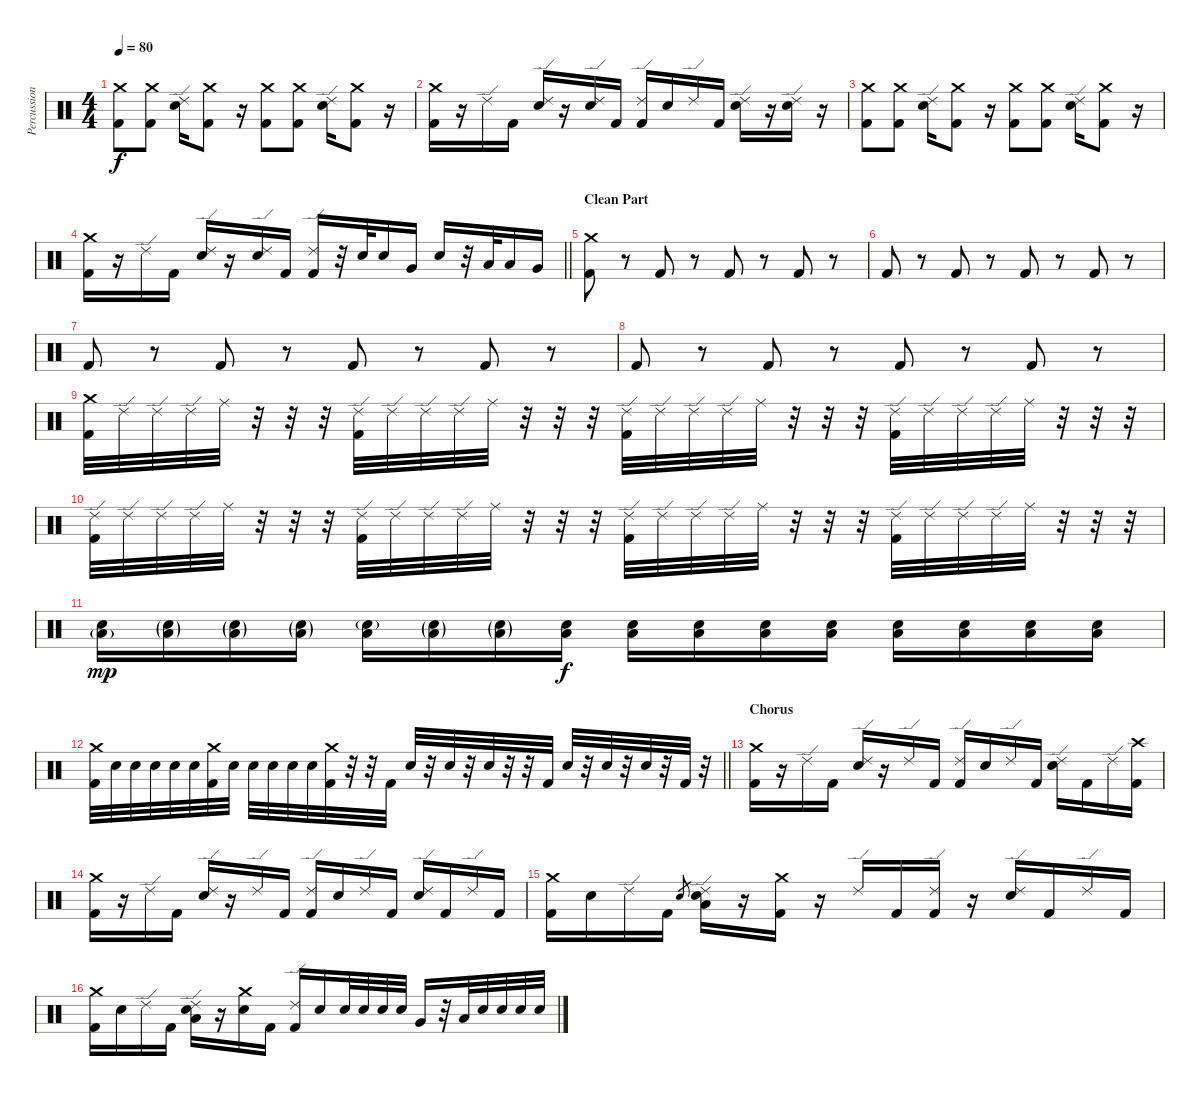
\track ("Percussion (Phillips)" "Percussion") {instrument percussion}
\staff {score}
\articulation defaults
\ts (4 4)
\tempo 80
\clef neutral
\ks c
("Crash medium (hit)" "Kick (hit) 2").8{dy f} ("Crash medium (hit)" "Kick (hit) 2").8 ("Ride (edge) 2" "Electric Snare (hit)").16 ("Crash medium (hit)" "Kick (hit) 2").8 r.16 ("Crash medium (hit)" "Kick (hit) 2").8 ("Crash medium (hit)" "Kick (hit) 2").8 ("Ride (edge) 2" "Electric Snare (hit)").16 ("Crash medium (hit)" "Kick (hit) 2").8 r.16 |
("Crash medium (hit)" "Kick (hit) 2").16 r.16 "Ride (edge) 2".16 "Kick (hit) 2".16 ("Ride (edge) 2" "Electric Snare (hit)").16 r.16 ("Ride (edge) 2" "Electric Snare (hit)").16 "Kick (hit) 2".16 ("Ride (edge) 2" "Kick (hit) 2").16 "Electric Snare (hit)".16 "Ride (edge) 2".16 "Kick (hit) 2".16 ("Ride (edge) 2" "Electric Snare (hit)").16 r.16 ("Ride (edge) 2" "Electric Snare (hit)").16 r.16 |
("Crash medium (hit)" "Kick (hit) 2").8 ("Crash medium (hit)" "Kick (hit) 2").8 ("Ride (edge) 2" "Electric Snare (hit)").16 ("Crash medium (hit)" "Kick (hit) 2").8 r.16 ("Crash medium (hit)" "Kick (hit) 2").8 ("Crash medium (hit)" "Kick (hit) 2").8 ("Ride (edge) 2" "Electric Snare (hit)").16 ("Crash medium (hit)" "Kick (hit) 2").8 r.16 |
\barLineRight lightlight
("Crash medium (hit)" "Kick (hit) 2").16 r.16 "Ride (edge) 2".16 "Kick (hit) 2".16 ("Ride (edge) 2" "Electric Snare (hit)").16 r.16 ("Ride (edge) 2" "Electric Snare (hit)").16 "Kick (hit) 2".16 ("Ride (edge) 2" "Kick (hit) 2").16 r.32 "Electric Snare (hit)".32 "Electric Snare (hit)".16 "Very Low Tom (hit)".16 "Electric Snare (hit)".16 r.32 "Low Tom (hit)".32 "Low Tom (hit)".16 "Very Low Tom (hit)".16 |
\section ("" "Clean Part")
("Crash medium (hit)" "Kick (hit) 2").8 r.8 "Kick (hit) 2".8 r.8 "Kick (hit) 2".8 r.8 "Kick (hit) 2".8 r.8 |
"Kick (hit) 2".8 r.8 "Kick (hit) 2".8 r.8 "Kick (hit) 2".8 r.8 "Kick (hit) 2".8 r.8 |
"Kick (hit) 2".8 r.8 "Kick (hit) 2".8 r.8 "Kick (hit) 2".8 r.8 "Kick (hit) 2".8 r.8 |
"Kick (hit) 2".8 r.8 "Kick (hit) 2".8 r.8 "Kick (hit) 2".8 r.8 "Kick (hit) 2".8 r.8 |
("Crash medium (hit)" "Kick (hit) 2").32 "Ride (edge) 2".32 "Ride (edge) 2".32 "Ride (edge) 2".32 "Ride (middle)".32 r.32 r.32 r.32 ("Ride (edge) 2" "Kick (hit) 2").32 "Ride (edge) 2".32 "Ride (edge) 2".32 "Ride (edge) 2".32 "Ride (middle)".32 r.32 r.32 r.32 ("Ride (edge) 2" "Kick (hit) 2").32 "Ride (edge) 2".32 "Ride (edge) 2".32 "Ride (edge) 2".32 "Ride (middle)".32 r.32 r.32 r.32 ("Ride (edge) 2" "Kick (hit) 2").32 "Ride (edge) 2".32 "Ride (edge) 2".32 "Ride (edge) 2".32 "Ride (middle)".32 r.32 r.32 r.32 |
("Ride (edge) 2" "Kick (hit) 2").32 "Ride (edge) 2".32 "Ride (edge) 2".32 "Ride (edge) 2".32 "Ride (middle)".32 r.32 r.32 r.32 ("Ride (edge) 2" "Kick (hit) 2").32 "Ride (edge) 2".32 "Ride (edge) 2".32 "Ride (edge) 2".32 "Ride (middle)".32 r.32 r.32 r.32 ("Ride (edge) 2" "Kick (hit) 2").32 "Ride (edge) 2".32 "Ride (edge) 2".32 "Ride (edge) 2".32 "Ride (middle)".32 r.32 r.32 r.32 ("Ride (edge) 2" "Kick (hit) 2").32 "Ride (edge) 2".32 "Ride (edge) 2".32 "Ride (edge) 2".32 "Ride (middle)".32 r.32 r.32 r.32 |
("Low Floor Tom (hit)"{g} "Electric Snare (hit)").16{dy mp} ("Low Floor Tom (hit)"{g} "Electric Snare (hit)"{g}).16 ("Low Floor Tom (hit)"{g} "Electric Snare (hit)"{g}).16 ("Low Floor Tom (hit)"{g} "Electric Snare (hit)"{g}).16 ("Low Floor Tom (hit)" "Electric Snare (hit)"{g}).16 ("Low Floor Tom (hit)"{g} "Electric Snare (hit)"{g}).16 ("Low Floor Tom (hit)"{g} "Electric Snare (hit)"{g}).16 ("Low Floor Tom (hit)" "Electric Snare (hit)").16{dy f} ("Low Floor Tom (hit)" "Electric Snare (hit)").16 ("Low Floor Tom (hit)" "Electric Snare (hit)").16 ("Low Floor Tom (hit)" "Electric Snare (hit)").16 ("Low Floor Tom (hit)" "Electric Snare (hit)").16 ("Low Floor Tom (hit)" "Electric Snare (hit)").16 ("Low Floor Tom (hit)" "Electric Snare (hit)").16 ("Low Floor Tom (hit)" "Electric Snare (hit)").16 ("Low Floor Tom (hit)" "Electric Snare (hit)").16 |
\barLineRight lightlight
("Crash medium (hit)" "Kick (hit) 2").32 "Electric Snare (hit)".32 "Electric Snare (hit)".32 "Electric Snare (hit)".32 "Electric Snare (hit)".32 "Electric Snare (hit)".32 ("Crash medium (hit)" "Kick (hit) 2").32 "Electric Snare (hit)".32 "Electric Snare (hit)".32 "Electric Snare (hit)".32 "Electric Snare (hit)".32 "Electric Snare (hit)".32 ("Crash medium (hit)" "Kick (hit) 2").32 r.32 r.32 "Kick (hit) 2".32 "Electric Snare (hit)".32 r.32 "Electric Snare (hit)".32 r.32 "Electric Snare (hit)".32 r.32 r.32 "Kick (hit) 2".32 "Electric Snare (hit)".32 r.32 "Electric Snare (hit)".32 r.32 "Electric Snare (hit)".32 r.32 "Kick (hit) 2".32 r.32 |
\section ("" "Chorus")
("Crash medium (hit)" "Kick (hit) 2").16 r.16 "Ride (edge) 2".16 "Kick (hit) 2".16 ("Ride (edge) 2" "Electric Snare (hit)").16 r.16 "Ride (edge) 2".16 "Kick (hit) 2".16 ("Ride (edge) 2" "Kick (hit) 2").16 "Electric Snare (hit)".16 "Ride (edge) 2".16 "Kick (hit) 2".16 ("Ride (edge) 2" "Electric Snare (hit)").16 "Kick (hit) 2".16 "Ride (edge) 2".16 ("Crash high (hit)" "Kick (hit) 2").16 |
("Crash medium (hit)" "Kick (hit) 2").16 r.16 "Ride (edge) 2".16 "Kick (hit) 2".16 ("Ride (edge) 2" "Electric Snare (hit)").16 r.16 "Ride (edge) 2".16 "Kick (hit) 2".16 ("Ride (edge) 2" "Kick (hit) 2").16 "Electric Snare (hit)".16 "Ride (edge) 2".16 "Kick (hit) 2".16 ("Ride (edge) 2" "Electric Snare (hit)").16 "Kick (hit) 2".16 "Ride (edge) 2".16 "Kick (hit) 2".16 |
("Crash medium (hit)" "Kick (hit) 2").16 "Electric Snare (hit)".16 "Ride (edge) 2".16 "Kick (hit) 2".16 "Electric Snare (hit)".8{gr} ("Low Tom (hit)" "Ride (edge) 2" "Electric Snare (hit)").16 r.16 ("Crash medium (hit)" "Kick (hit) 2").16 r.16 "Ride (edge) 2".16 "Kick (hit) 2".16 ("Ride (edge) 2" "Kick (hit) 2").16 r.16 ("Ride (edge) 2" "Electric Snare (hit)").16 "Kick (hit) 2".16 "Ride (edge) 2".16 "Kick (hit) 2".16 |
("Crash medium (hit)" "Kick (hit) 2").16 "Electric Snare (hit)".16 "Ride (edge) 2".16 "Kick (hit) 2".16 ("Low Tom (hit)" "Ride (edge) 2" "Electric Snare (hit)").16 r.16 ("Crash medium (hit)" "Electric Snare (hit)").16 "Kick (hit) 2".16 ("Ride (edge) 2" "Kick (hit) 2").16 "Electric Snare (hit)".16 "Electric Snare (hit)".32 "Electric Snare (hit)".32 "Electric Snare (hit)".32 "Electric Snare (hit)".32 "Very Low Tom (hit)".16 r.32 "Low Tom (hit)".32 "Electric Snare (hit)".32 "Electric Snare (hit)".32 "Electric Snare (hit)".32 "Electric Snare (hit)".32
